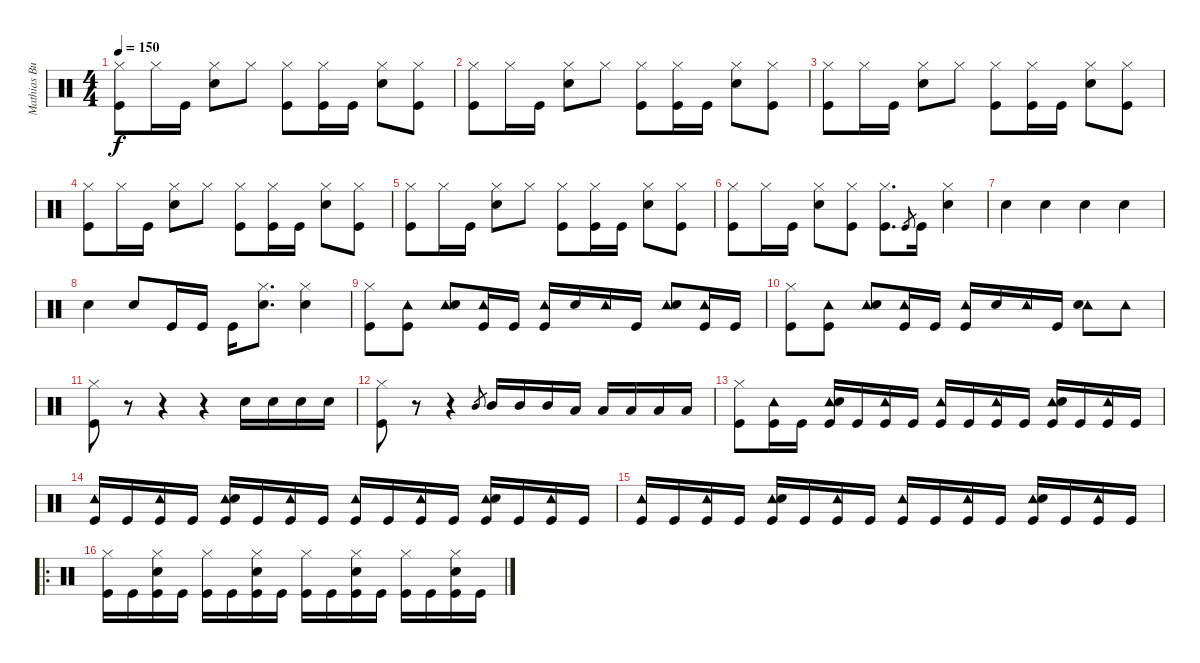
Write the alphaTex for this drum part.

\track ("Mathias Burchardt - batterie" "Mathias Bu") {instrument percussion}
\staff {score}
\articulation defaults
\ts (4 4)
\tempo 150
\clef neutral
\ks c
("Hi-Hat (closed)" "Kick (hit)").8{dy f} "Hi-Hat (closed)".16 "Kick (hit)".16 ("Hi-Hat (closed)" "Snare (hit) 2").8 "Hi-Hat (closed)".8 ("Hi-Hat (closed)" "Kick (hit)").8 ("Hi-Hat (closed)" "Kick (hit)").16 "Kick (hit)".16 ("Hi-Hat (closed)" "Snare (hit) 2").8 ("Hi-Hat (closed)" "Kick (hit)").8 |
("Hi-Hat (closed)" "Kick (hit)").8 "Hi-Hat (closed)".16 "Kick (hit)".16 ("Hi-Hat (closed)" "Snare (hit) 2").8 "Hi-Hat (closed)".8 ("Hi-Hat (closed)" "Kick (hit)").8 ("Hi-Hat (closed)" "Kick (hit)").16 "Kick (hit)".16 ("Hi-Hat (closed)" "Snare (hit) 2").8 ("Hi-Hat (closed)" "Kick (hit)").8 |
("Hi-Hat (closed)" "Kick (hit)").8 "Hi-Hat (closed)".16 "Kick (hit)".16 ("Hi-Hat (closed)" "Snare (hit) 2").8 "Hi-Hat (closed)".8 ("Hi-Hat (closed)" "Kick (hit)").8 ("Hi-Hat (closed)" "Kick (hit)").16 "Kick (hit)".16 ("Hi-Hat (closed)" "Snare (hit) 2").8 ("Hi-Hat (closed)" "Kick (hit)").8 |
("Hi-Hat (closed)" "Kick (hit)").8 "Hi-Hat (closed)".16 "Kick (hit)".16 ("Hi-Hat (closed)" "Snare (hit) 2").8 "Hi-Hat (closed)".8 ("Hi-Hat (closed)" "Kick (hit)").8 ("Hi-Hat (closed)" "Kick (hit)").16 "Kick (hit)".16 ("Hi-Hat (closed)" "Snare (hit) 2").8 ("Hi-Hat (closed)" "Kick (hit)").8 |
("Hi-Hat (closed)" "Kick (hit)").8 "Hi-Hat (closed)".16 "Kick (hit)".16 ("Hi-Hat (closed)" "Snare (hit) 2").8 "Hi-Hat (closed)".8 ("Hi-Hat (closed)" "Kick (hit)").8 ("Hi-Hat (closed)" "Kick (hit)").16 "Kick (hit)".16 ("Hi-Hat (closed)" "Snare (hit) 2").8 ("Hi-Hat (closed)" "Kick (hit)").8 |
("Hi-Hat (closed)" "Kick (hit)").8 "Hi-Hat (closed)".16 "Kick (hit)".16 ("Hi-Hat (closed)" "Snare (hit) 2").8 ("Hi-Hat (closed)" "Kick (hit)").8 ("Hi-Hat (closed)" "Kick (hit)").8{d} "Kick (hit)".8{gr} "Kick (hit)".16 ("Hi-Hat (closed)" "Snare (hit) 2").4 |
"Snare (hit) 2".4 "Snare (hit) 2".4 "Snare (hit) 2".4 "Snare (hit) 2".4 |
"Snare (hit) 2".4 "Snare (hit) 2".8 "Kick (hit)".16 "Kick (hit)".16 "Kick (hit)".16 ("Hi-Hat (closed)" "Snare (hit) 2").8{d} ("Hi-Hat (closed)" "Snare (hit) 2").4 |
("Hi-Hat (closed)" "Kick (hit)").8 ("Tambourine (hit)" "Kick (hit)").8 ("Tambourine (hit)" "Snare (hit) 2").8 ("Tambourine (hit)" "Kick (hit)").16 "Kick (hit)".16 ("Tambourine (hit)" "Kick (hit)").16 "Snare (hit) 2".16 "Tambourine (hit)".16 "Kick (hit)".16 ("Tambourine (hit)" "Snare (hit) 2").8 ("Tambourine (hit)" "Kick (hit)").16 "Kick (hit)".16 |
("Hi-Hat (closed)" "Kick (hit)").8 ("Tambourine (hit)" "Kick (hit)").8 ("Tambourine (hit)" "Snare (hit) 2").8 ("Tambourine (hit)" "Kick (hit)").16 "Kick (hit)".16 ("Tambourine (hit)" "Kick (hit)").16 "Snare (hit) 2".16 "Tambourine (hit)".16 "Kick (hit)".16 ("Tambourine (hit)" "Snare (hit) 2").8 "Tambourine (hit)".8 |
("Hi-Hat (closed)" "Kick (hit)").8 r.8 r.4 r.4 "Snare (hit) 2".16 "Snare (hit) 2".16 "Snare (hit) 2".16 "Snare (hit) 2".16 |
("Hi-Hat (closed)" "Kick (hit)").8 r.8 r.4 "Mid Tom (hit)".8{gr} "Mid Tom (hit)".16 "Mid Tom (hit)".16 "Mid Tom (hit)".16 "Low Tom (hit)".16 "Low Tom (hit)".16 "Low Tom (hit)".16 "Low Tom (hit)".16 "Low Tom (hit)".16 |
("Hi-Hat (closed)" "Kick (hit)").8 ("Tambourine (hit)" "Kick (hit)").16 "Kick (hit)".16 ("Tambourine (hit)" "Snare (hit) 2" "Kick (hit)").16 "Kick (hit)".16 ("Tambourine (hit)" "Kick (hit)").16 "Kick (hit)".16 ("Tambourine (hit)" "Kick (hit)").16 "Kick (hit)".16 ("Tambourine (hit)" "Kick (hit)").16 "Kick (hit)".16 ("Tambourine (hit)" "Snare (hit) 2" "Kick (hit)").16 "Kick (hit)".16 ("Tambourine (hit)" "Kick (hit)").16 "Kick (hit)".16 |
("Tambourine (hit)" "Kick (hit)").16 "Kick (hit)".16 ("Tambourine (hit)" "Kick (hit)").16 "Kick (hit)".16 ("Tambourine (hit)" "Snare (hit) 2" "Kick (hit)").16 "Kick (hit)".16 ("Tambourine (hit)" "Kick (hit)").16 "Kick (hit)".16 ("Tambourine (hit)" "Kick (hit)").16 "Kick (hit)".16 ("Tambourine (hit)" "Kick (hit)").16 "Kick (hit)".16 ("Tambourine (hit)" "Snare (hit) 2" "Kick (hit)").16 "Kick (hit)".16 ("Tambourine (hit)" "Kick (hit)").16 "Kick (hit)".16 |
("Tambourine (hit)" "Kick (hit)").16 "Kick (hit)".16 ("Tambourine (hit)" "Kick (hit)").16 "Kick (hit)".16 ("Tambourine (hit)" "Snare (hit) 2" "Kick (hit)").16 "Kick (hit)".16 ("Tambourine (hit)" "Kick (hit)").16 "Kick (hit)".16 ("Tambourine (hit)" "Kick (hit)").16 "Kick (hit)".16 ("Tambourine (hit)" "Kick (hit)").16 "Kick (hit)".16 ("Tambourine (hit)" "Snare (hit) 2" "Kick (hit)").16 "Kick (hit)".16 ("Tambourine (hit)" "Kick (hit)").16 "Kick (hit)".16 |
\ro
("Hi-Hat (closed)" "Kick (hit)").16 "Kick (hit)".16 ("Hi-Hat (closed)" "Snare (hit) 2" "Kick (hit)").16 "Kick (hit)".16 ("Hi-Hat (closed)" "Kick (hit)").16 "Kick (hit)".16 ("Hi-Hat (closed)" "Snare (hit) 2" "Kick (hit)").16 "Kick (hit)".16 ("Hi-Hat (closed)" "Kick (hit)").16 "Kick (hit)".16 ("Hi-Hat (closed)" "Snare (hit) 2" "Kick (hit)").16 "Kick (hit)".16 ("Hi-Hat (closed)" "Kick (hit)").16 "Kick (hit)".16 ("Hi-Hat (closed)" "Snare (hit) 2" "Kick (hit)").16 "Kick (hit)".16
